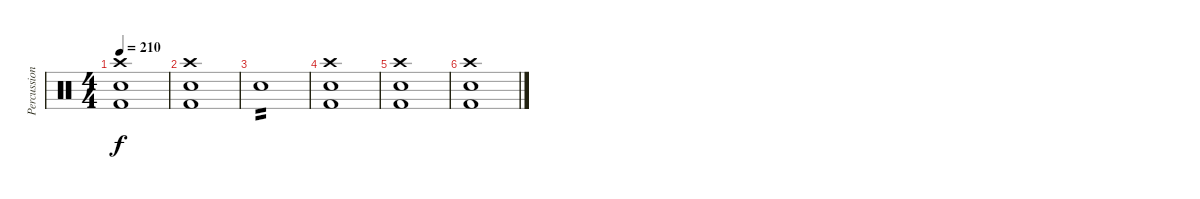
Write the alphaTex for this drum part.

\track ("Percussion" "Percussion") {instrument percussion}
\staff {score}
\articulation defaults
\ts (4 4)
\tempo 210
\clef neutral
\ks c
("Kick (hit) 2" "Snare (hit) 2" "Crash high (hit)").1{dy f} |
("Kick (hit) 2" "Snare (hit) 2" "Crash high (hit)").1 |
"Snare (hit) 2".1{tp 2} |
("Kick (hit) 2" "Snare (hit) 2" "Crash high (hit)").1 |
("Kick (hit) 2" "Snare (hit) 2" "Crash high (hit)").1 |
("Kick (hit) 2" "Snare (hit) 2" "Crash high (hit)").1
